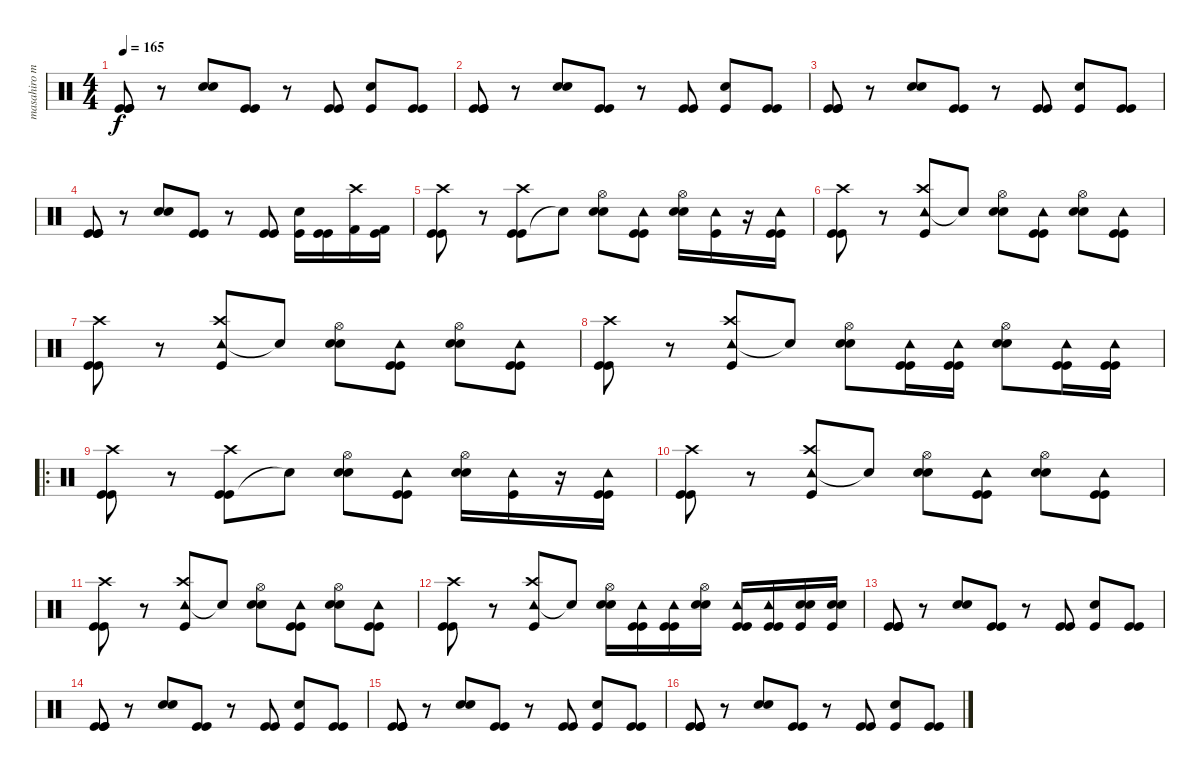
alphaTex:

\track ("masahiro muta" "masahiro m") {instrument percussion}
\staff {score}
\articulation defaults
\ts (4 4)
\tempo 165
\clef neutral
\ks c
("Kick (hit)" "Kick (hit)" "Kick (hit)").8{dy f} r.8 ("Electric Snare (hit)" "Electric Snare (hit)").8 ("Kick (hit)" "Kick (hit)").8 r.8 ("Kick (hit)" "Kick (hit)").8 ("Electric Snare (hit)" "Kick (hit)").8 ("Kick (hit)" "Kick (hit)").8 |
("Kick (hit)" "Kick (hit)" "Kick (hit)").8 r.8 ("Electric Snare (hit)" "Electric Snare (hit)").8 ("Kick (hit)" "Kick (hit)").8 r.8 ("Kick (hit)" "Kick (hit)").8 ("Electric Snare (hit)" "Kick (hit)").8 ("Kick (hit)" "Kick (hit)").8 |
("Kick (hit)" "Kick (hit)" "Kick (hit)").8 r.8 ("Electric Snare (hit)" "Electric Snare (hit)").8 ("Kick (hit)" "Kick (hit)").8 r.8 ("Kick (hit)" "Kick (hit)").8 ("Electric Snare (hit)" "Kick (hit)").8 ("Kick (hit)" "Kick (hit)").8 |
("Kick (hit)" "Kick (hit)" "Kick (hit)").8 r.8 ("Electric Snare (hit)" "Electric Snare (hit)").8 ("Kick (hit)" "Kick (hit)").8 r.8 ("Kick (hit)" "Kick (hit)").8 ("Electric Snare (hit)" "Kick (hit)").16 ("Kick (hit)" "Kick (hit)").16 ("Crash high (hit)" "Kick (hit) 2").16 ("Kick (hit)" "Kick (hit) 2").16 |
("Kick (hit)" "Crash high (hit)" "Kick (hit)").8 r.8 ("Kick (hit)" "Crash high (hit)" "Kick (hit)").8 "Snare (hit)"{t}.8 ("Electric Snare (hit)" "Hi-Hat (open)" "Electric Snare (hit)").8 ("Kick (hit)" "Tambourine (hit)" "Kick (hit)").8 ("Electric Snare (hit)" "Hi-Hat (open)" "Electric Snare (hit)").16 ("Kick (hit)" "Tambourine (hit)").16 r.16 ("Tambourine (hit)" "Kick (hit)" "Kick (hit)").16 |
("Kick (hit)" "Kick (hit)" "Crash high (hit)").8 r.8 ("Tambourine (hit)" "Kick (hit)" "Crash high (hit)").8 "Snare (hit)"{t}.8 ("Electric Snare (hit)" "Hi-Hat (open)" "Electric Snare (hit)").8 ("Kick (hit)" "Tambourine (hit)" "Kick (hit)").8 ("Hi-Hat (open)" "Electric Snare (hit)" "Electric Snare (hit)").8 ("Kick (hit)" "Tambourine (hit)" "Kick (hit)").8 |
("Kick (hit)" "Kick (hit)" "Crash high (hit)").8 r.8 ("Tambourine (hit)" "Kick (hit)" "Crash high (hit)").8 "Snare (hit)"{t}.8 ("Electric Snare (hit)" "Hi-Hat (open)" "Electric Snare (hit)").8 ("Kick (hit)" "Tambourine (hit)" "Kick (hit)").8 ("Hi-Hat (open)" "Electric Snare (hit)" "Electric Snare (hit)").8 ("Kick (hit)" "Tambourine (hit)" "Kick (hit)").8 |
("Kick (hit)" "Kick (hit)" "Crash high (hit)").8 r.8 ("Tambourine (hit)" "Kick (hit)" "Crash high (hit)").8 "Snare (hit)"{t}.8 ("Electric Snare (hit)" "Hi-Hat (open)" "Electric Snare (hit)").8 ("Tambourine (hit)" "Kick (hit)" "Kick (hit)").16 ("Kick (hit)" "Tambourine (hit)" "Kick (hit)").16 ("Hi-Hat (open)" "Electric Snare (hit)" "Electric Snare (hit)").8 ("Kick (hit)" "Tambourine (hit)" "Kick (hit)").16 ("Kick (hit)" "Tambourine (hit)" "Kick (hit)").16 |
\ro
("Kick (hit)" "Crash high (hit)" "Kick (hit)").8 r.8 ("Kick (hit)" "Crash high (hit)" "Kick (hit)").8 "Snare (hit)"{t}.8 ("Electric Snare (hit)" "Hi-Hat (open)" "Electric Snare (hit)").8 ("Kick (hit)" "Tambourine (hit)" "Kick (hit)").8 ("Electric Snare (hit)" "Hi-Hat (open)" "Electric Snare (hit)").16 ("Kick (hit)" "Tambourine (hit)").16 r.16 ("Tambourine (hit)" "Kick (hit)" "Kick (hit)").16 |
("Kick (hit)" "Kick (hit)" "Crash high (hit)").8 r.8 ("Tambourine (hit)" "Kick (hit)" "Crash high (hit)").8 "Snare (hit)"{t}.8 ("Electric Snare (hit)" "Hi-Hat (open)" "Electric Snare (hit)").8 ("Kick (hit)" "Tambourine (hit)" "Kick (hit)").8 ("Hi-Hat (open)" "Electric Snare (hit)" "Electric Snare (hit)").8 ("Kick (hit)" "Tambourine (hit)" "Kick (hit)").8 |
("Kick (hit)" "Kick (hit)" "Crash high (hit)").8 r.8 ("Tambourine (hit)" "Kick (hit)" "Crash high (hit)").8 "Snare (hit)"{t}.8 ("Electric Snare (hit)" "Hi-Hat (open)" "Electric Snare (hit)").8 ("Kick (hit)" "Tambourine (hit)" "Kick (hit)").8 ("Hi-Hat (open)" "Electric Snare (hit)" "Electric Snare (hit)").8 ("Kick (hit)" "Tambourine (hit)" "Kick (hit)").8 |
("Kick (hit)" "Kick (hit)" "Crash high (hit)").8 r.8 ("Tambourine (hit)" "Kick (hit)" "Crash high (hit)").8 "Snare (hit)"{t}.8 ("Electric Snare (hit)" "Hi-Hat (open)" "Electric Snare (hit)").16 ("Tambourine (hit)" "Kick (hit)" "Kick (hit)").16 ("Kick (hit)" "Tambourine (hit)" "Kick (hit)").16 ("Hi-Hat (open)" "Electric Snare (hit)" "Electric Snare (hit)").16 ("Kick (hit)" "Tambourine (hit)" "Kick (hit)").16 ("Kick (hit)" "Tambourine (hit)" "Kick (hit)").16 ("Electric Snare (hit)" "Electric Snare (hit)" "Kick (hit)").16 ("Electric Snare (hit)" "Electric Snare (hit)" "Kick (hit)").16 |
("Kick (hit)" "Kick (hit)" "Kick (hit)").8 r.8 ("Electric Snare (hit)" "Electric Snare (hit)").8 ("Kick (hit)" "Kick (hit)").8 r.8 ("Kick (hit)" "Kick (hit)").8 ("Electric Snare (hit)" "Kick (hit)").8 ("Kick (hit)" "Kick (hit)").8 |
("Kick (hit)" "Kick (hit)" "Kick (hit)").8 r.8 ("Electric Snare (hit)" "Electric Snare (hit)").8 ("Kick (hit)" "Kick (hit)").8 r.8 ("Kick (hit)" "Kick (hit)").8 ("Electric Snare (hit)" "Kick (hit)").8 ("Kick (hit)" "Kick (hit)").8 |
("Kick (hit)" "Kick (hit)" "Kick (hit)").8 r.8 ("Electric Snare (hit)" "Electric Snare (hit)").8 ("Kick (hit)" "Kick (hit)").8 r.8 ("Kick (hit)" "Kick (hit)").8 ("Electric Snare (hit)" "Kick (hit)").8 ("Kick (hit)" "Kick (hit)").8 |
("Kick (hit)" "Kick (hit)" "Kick (hit)").8 r.8 ("Electric Snare (hit)" "Electric Snare (hit)").8 ("Kick (hit)" "Kick (hit)").8 r.8 ("Kick (hit)" "Kick (hit)").8 ("Electric Snare (hit)" "Kick (hit)").8 ("Kick (hit)" "Kick (hit)").8
